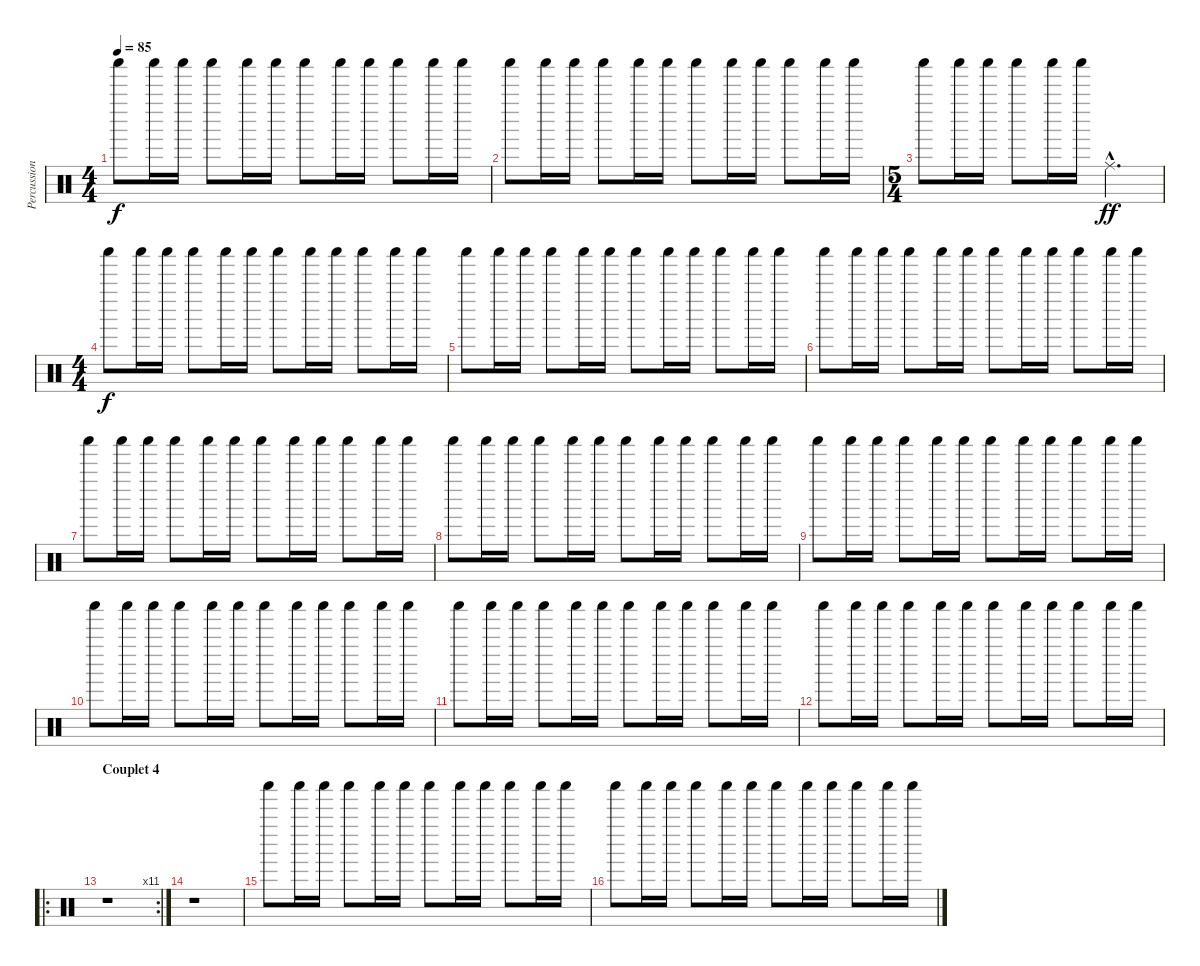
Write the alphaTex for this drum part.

\track ("Percussion" "Percussion") {instrument percussion}
\staff {score}
\articulation defaults
\ts (4 4)
\tempo 85
\clef neutral
\ks c "Shaker (hit)".8{dy f} "Shaker (hit)".16 "Shaker (hit)".16 "Shaker (hit)".8 "Shaker (hit)".16 "Shaker (hit)".16 "Shaker (hit)".8 "Shaker (hit)".16 "Shaker (hit)".16 "Shaker (hit)".8 "Shaker (hit)".16 "Shaker (hit)".16
|
"Shaker (hit)".8 "Shaker (hit)".16 "Shaker (hit)".16 "Shaker (hit)".8 "Shaker (hit)".16 "Shaker (hit)".16 "Shaker (hit)".8 "Shaker (hit)".16 "Shaker (hit)".16 "Shaker (hit)".8 "Shaker (hit)".16 "Shaker (hit)".16 |
\ts (5 4)
"Shaker (hit)".8 "Shaker (hit)".16 "Shaker (hit)".16 "Shaker (hit)".8 "Shaker (hit)".16 "Shaker (hit)".16 "Ride (middle)"{hac}.2{d dy ff} |
\ts (4 4)
"Shaker (hit)".8{dy f} "Shaker (hit)".16 "Shaker (hit)".16 "Shaker (hit)".8 "Shaker (hit)".16 "Shaker (hit)".16 "Shaker (hit)".8 "Shaker (hit)".16 "Shaker (hit)".16 "Shaker (hit)".8 "Shaker (hit)".16 "Shaker (hit)".16 |
"Shaker (hit)".8 "Shaker (hit)".16 "Shaker (hit)".16 "Shaker (hit)".8 "Shaker (hit)".16 "Shaker (hit)".16 "Shaker (hit)".8 "Shaker (hit)".16 "Shaker (hit)".16 "Shaker (hit)".8 "Shaker (hit)".16 "Shaker (hit)".16 |
"Shaker (hit)".8 "Shaker (hit)".16 "Shaker (hit)".16 "Shaker (hit)".8 "Shaker (hit)".16 "Shaker (hit)".16 "Shaker (hit)".8 "Shaker (hit)".16 "Shaker (hit)".16 "Shaker (hit)".8 "Shaker (hit)".16 "Shaker (hit)".16 |
"Shaker (hit)".8 "Shaker (hit)".16 "Shaker (hit)".16 "Shaker (hit)".8 "Shaker (hit)".16 "Shaker (hit)".16 "Shaker (hit)".8 "Shaker (hit)".16 "Shaker (hit)".16 "Shaker (hit)".8 "Shaker (hit)".16 "Shaker (hit)".16 |
"Shaker (hit)".8 "Shaker (hit)".16 "Shaker (hit)".16 "Shaker (hit)".8 "Shaker (hit)".16 "Shaker (hit)".16 "Shaker (hit)".8 "Shaker (hit)".16 "Shaker (hit)".16 "Shaker (hit)".8 "Shaker (hit)".16 "Shaker (hit)".16 |
"Shaker (hit)".8 "Shaker (hit)".16 "Shaker (hit)".16 "Shaker (hit)".8 "Shaker (hit)".16 "Shaker (hit)".16 "Shaker (hit)".8 "Shaker (hit)".16 "Shaker (hit)".16 "Shaker (hit)".8 "Shaker (hit)".16 "Shaker (hit)".16 |
"Shaker (hit)".8 "Shaker (hit)".16 "Shaker (hit)".16 "Shaker (hit)".8 "Shaker (hit)".16 "Shaker (hit)".16 "Shaker (hit)".8 "Shaker (hit)".16 "Shaker (hit)".16 "Shaker (hit)".8 "Shaker (hit)".16 "Shaker (hit)".16 |
"Shaker (hit)".8 "Shaker (hit)".16 "Shaker (hit)".16 "Shaker (hit)".8 "Shaker (hit)".16 "Shaker (hit)".16 "Shaker (hit)".8 "Shaker (hit)".16 "Shaker (hit)".16 "Shaker (hit)".8 "Shaker (hit)".16 "Shaker (hit)".16 |
"Shaker (hit)".8 "Shaker (hit)".16 "Shaker (hit)".16 "Shaker (hit)".8 "Shaker (hit)".16 "Shaker (hit)".16 "Shaker (hit)".8 "Shaker (hit)".16 "Shaker (hit)".16 "Shaker (hit)".8 "Shaker (hit)".16 "Shaker (hit)".16 |
\ro
\rc 11
\section ("" "Couplet 4")
r.1 |
r.1 |
"Shaker (hit)".8 "Shaker (hit)".16 "Shaker (hit)".16 "Shaker (hit)".8 "Shaker (hit)".16 "Shaker (hit)".16 "Shaker (hit)".8 "Shaker (hit)".16 "Shaker (hit)".16 "Shaker (hit)".8 "Shaker (hit)".16 "Shaker (hit)".16 |
"Shaker (hit)".8 "Shaker (hit)".16 "Shaker (hit)".16 "Shaker (hit)".8 "Shaker (hit)".16 "Shaker (hit)".16 "Shaker (hit)".8 "Shaker (hit)".16 "Shaker (hit)".16 "Shaker (hit)".8 "Shaker (hit)".16 "Shaker (hit)".16
